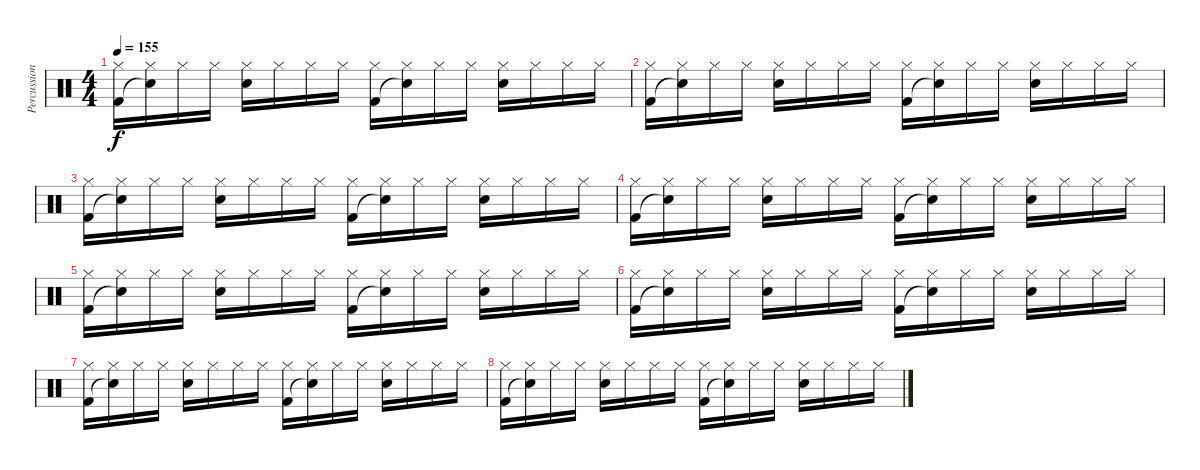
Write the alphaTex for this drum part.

\track ("Percussion" "Percussion") {instrument percussion}
\staff {score}
\articulation defaults
\ts (4 4)
\tempo 155
\clef neutral
\ks c
("Hi-Hat (closed)" "Kick (hit) 2").16{dy f} ("Hi-Hat (closed)" "Snare (hit)"{t}).16 "Hi-Hat (closed)".16 "Hi-Hat (closed)".16 ("Hi-Hat (closed)" "Snare (hit) 2").16 "Hi-Hat (closed)".16 "Hi-Hat (closed)".16 "Hi-Hat (closed)".16 ("Hi-Hat (closed)" "Kick (hit) 2").16 ("Hi-Hat (closed)" "Snare (hit)"{t}).16 "Hi-Hat (closed)".16 "Hi-Hat (closed)".16 ("Hi-Hat (closed)" "Snare (hit) 2").16 "Hi-Hat (closed)".16 "Hi-Hat (closed)".16 "Hi-Hat (closed)".16 |
("Hi-Hat (closed)" "Kick (hit) 2").16 ("Hi-Hat (closed)" "Snare (hit)"{t}).16 "Hi-Hat (closed)".16 "Hi-Hat (closed)".16 ("Hi-Hat (closed)" "Snare (hit) 2").16 "Hi-Hat (closed)".16 "Hi-Hat (closed)".16 "Hi-Hat (closed)".16 ("Hi-Hat (closed)" "Kick (hit) 2").16 ("Hi-Hat (closed)" "Snare (hit)"{t}).16 "Hi-Hat (closed)".16 "Hi-Hat (closed)".16 ("Hi-Hat (closed)" "Snare (hit) 2").16 "Hi-Hat (closed)".16 "Hi-Hat (closed)".16 "Hi-Hat (closed)".16 |
("Hi-Hat (closed)" "Kick (hit) 2").16 ("Hi-Hat (closed)" "Snare (hit)"{t}).16 "Hi-Hat (closed)".16 "Hi-Hat (closed)".16 ("Hi-Hat (closed)" "Snare (hit) 2").16 "Hi-Hat (closed)".16 "Hi-Hat (closed)".16 "Hi-Hat (closed)".16 ("Hi-Hat (closed)" "Kick (hit) 2").16 ("Hi-Hat (closed)" "Snare (hit)"{t}).16 "Hi-Hat (closed)".16 "Hi-Hat (closed)".16 ("Hi-Hat (closed)" "Snare (hit) 2").16 "Hi-Hat (closed)".16 "Hi-Hat (closed)".16 "Hi-Hat (closed)".16 |
("Hi-Hat (closed)" "Kick (hit) 2").16 ("Hi-Hat (closed)" "Snare (hit)"{t}).16 "Hi-Hat (closed)".16 "Hi-Hat (closed)".16 ("Hi-Hat (closed)" "Snare (hit) 2").16 "Hi-Hat (closed)".16 "Hi-Hat (closed)".16 "Hi-Hat (closed)".16 ("Hi-Hat (closed)" "Kick (hit) 2").16 ("Hi-Hat (closed)" "Snare (hit)"{t}).16 "Hi-Hat (closed)".16 "Hi-Hat (closed)".16 ("Hi-Hat (closed)" "Snare (hit) 2").16 "Hi-Hat (closed)".16 "Hi-Hat (closed)".16 "Hi-Hat (closed)".16 |
("Hi-Hat (closed)" "Kick (hit) 2").16{volume 0} ("Hi-Hat (closed)" "Snare (hit)"{t}).16 "Hi-Hat (closed)".16 "Hi-Hat (closed)".16 ("Hi-Hat (closed)" "Snare (hit) 2").16 "Hi-Hat (closed)".16 "Hi-Hat (closed)".16 "Hi-Hat (closed)".16 ("Hi-Hat (closed)" "Kick (hit) 2").16 ("Hi-Hat (closed)" "Snare (hit)"{t}).16 "Hi-Hat (closed)".16 "Hi-Hat (closed)".16 ("Hi-Hat (closed)" "Snare (hit) 2").16 "Hi-Hat (closed)".16 "Hi-Hat (closed)".16 "Hi-Hat (closed)".16 |
("Hi-Hat (closed)" "Kick (hit) 2").16 ("Hi-Hat (closed)" "Snare (hit)"{t}).16 "Hi-Hat (closed)".16 "Hi-Hat (closed)".16 ("Hi-Hat (closed)" "Snare (hit) 2").16 "Hi-Hat (closed)".16 "Hi-Hat (closed)".16 "Hi-Hat (closed)".16 ("Hi-Hat (closed)" "Kick (hit) 2").16 ("Hi-Hat (closed)" "Snare (hit)"{t}).16 "Hi-Hat (closed)".16 "Hi-Hat (closed)".16 ("Hi-Hat (closed)" "Snare (hit) 2").16 "Hi-Hat (closed)".16 "Hi-Hat (closed)".16 "Hi-Hat (closed)".16 |
("Hi-Hat (closed)" "Kick (hit) 2").16 ("Hi-Hat (closed)" "Snare (hit)"{t}).16 "Hi-Hat (closed)".16 "Hi-Hat (closed)".16 ("Hi-Hat (closed)" "Snare (hit) 2").16 "Hi-Hat (closed)".16 "Hi-Hat (closed)".16 "Hi-Hat (closed)".16 ("Hi-Hat (closed)" "Kick (hit) 2").16 ("Hi-Hat (closed)" "Snare (hit)"{t}).16 "Hi-Hat (closed)".16 "Hi-Hat (closed)".16 ("Hi-Hat (closed)" "Snare (hit) 2").16 "Hi-Hat (closed)".16 "Hi-Hat (closed)".16 "Hi-Hat (closed)".16 |
("Hi-Hat (closed)" "Kick (hit) 2").16 ("Hi-Hat (closed)" "Snare (hit)"{t}).16 "Hi-Hat (closed)".16 "Hi-Hat (closed)".16 ("Hi-Hat (closed)" "Snare (hit) 2").16 "Hi-Hat (closed)".16 "Hi-Hat (closed)".16 "Hi-Hat (closed)".16 ("Hi-Hat (closed)" "Kick (hit) 2").16 ("Hi-Hat (closed)" "Snare (hit)"{t}).16 "Hi-Hat (closed)".16 "Hi-Hat (closed)".16 ("Hi-Hat (closed)" "Snare (hit) 2").16 "Hi-Hat (closed)".16 "Hi-Hat (closed)".16 "Hi-Hat (closed)".16
